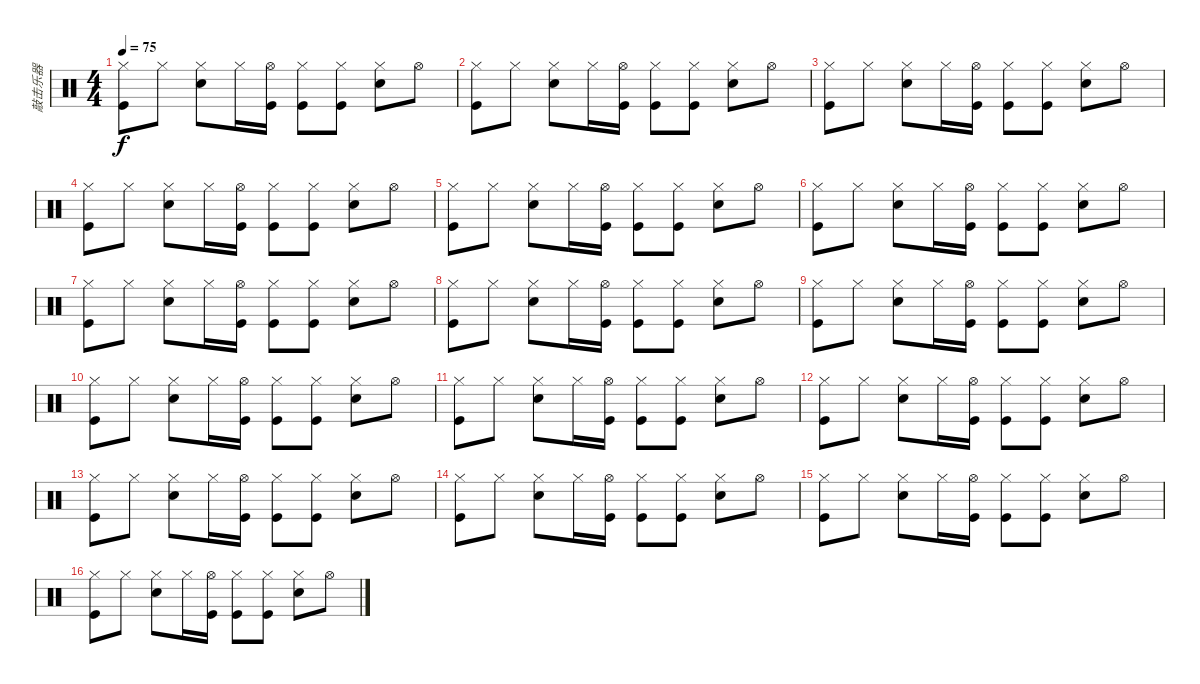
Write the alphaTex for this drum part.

\track ("敲击乐器" "敲击乐器") {instrument percussion}
\staff {score}
\articulation defaults
\ts (4 4)
\tempo 75
\clef neutral
\ks c
("Hi-Hat (closed)" "Kick (hit)").8{dy f} "Hi-Hat (closed)".8 ("Hi-Hat (closed)" "Snare (hit) 2").8 "Hi-Hat (closed)".16 ("Hi-Hat (open)" "Kick (hit)").16 ("Hi-Hat (closed)" "Kick (hit)").8 ("Hi-Hat (closed)" "Kick (hit)").8 ("Hi-Hat (closed)" "Snare (hit) 2").8 "Hi-Hat (open)".8 |
("Hi-Hat (closed)" "Kick (hit)").8 "Hi-Hat (closed)".8 ("Hi-Hat (closed)" "Snare (hit) 2").8 "Hi-Hat (closed)".16 ("Hi-Hat (open)" "Kick (hit)").16 ("Hi-Hat (closed)" "Kick (hit)").8 ("Hi-Hat (closed)" "Kick (hit)").8 ("Hi-Hat (closed)" "Snare (hit) 2").8 "Hi-Hat (open)".8 |
("Hi-Hat (closed)" "Kick (hit)").8 "Hi-Hat (closed)".8 ("Hi-Hat (closed)" "Snare (hit) 2").8 "Hi-Hat (closed)".16 ("Hi-Hat (open)" "Kick (hit)").16 ("Hi-Hat (closed)" "Kick (hit)").8 ("Hi-Hat (closed)" "Kick (hit)").8 ("Hi-Hat (closed)" "Snare (hit) 2").8 "Hi-Hat (open)".8 |
("Hi-Hat (closed)" "Kick (hit)").8 "Hi-Hat (closed)".8 ("Hi-Hat (closed)" "Snare (hit) 2").8 "Hi-Hat (closed)".16 ("Hi-Hat (open)" "Kick (hit)").16 ("Hi-Hat (closed)" "Kick (hit)").8 ("Hi-Hat (closed)" "Kick (hit)").8 ("Hi-Hat (closed)" "Snare (hit) 2").8 "Hi-Hat (open)".8 |
("Hi-Hat (closed)" "Kick (hit)").8 "Hi-Hat (closed)".8 ("Hi-Hat (closed)" "Snare (hit) 2").8 "Hi-Hat (closed)".16 ("Hi-Hat (open)" "Kick (hit)").16 ("Hi-Hat (closed)" "Kick (hit)").8 ("Hi-Hat (closed)" "Kick (hit)").8 ("Hi-Hat (closed)" "Snare (hit) 2").8 "Hi-Hat (open)".8 |
("Hi-Hat (closed)" "Kick (hit)").8 "Hi-Hat (closed)".8 ("Hi-Hat (closed)" "Snare (hit) 2").8 "Hi-Hat (closed)".16 ("Hi-Hat (open)" "Kick (hit)").16 ("Hi-Hat (closed)" "Kick (hit)").8 ("Hi-Hat (closed)" "Kick (hit)").8 ("Hi-Hat (closed)" "Snare (hit) 2").8 "Hi-Hat (open)".8 |
("Hi-Hat (closed)" "Kick (hit)").8 "Hi-Hat (closed)".8 ("Hi-Hat (closed)" "Snare (hit) 2").8 "Hi-Hat (closed)".16 ("Hi-Hat (open)" "Kick (hit)").16 ("Hi-Hat (closed)" "Kick (hit)").8 ("Hi-Hat (closed)" "Kick (hit)").8 ("Hi-Hat (closed)" "Snare (hit) 2").8 "Hi-Hat (open)".8 |
("Hi-Hat (closed)" "Kick (hit)").8 "Hi-Hat (closed)".8 ("Hi-Hat (closed)" "Snare (hit) 2").8 "Hi-Hat (closed)".16 ("Hi-Hat (open)" "Kick (hit)").16 ("Hi-Hat (closed)" "Kick (hit)").8 ("Hi-Hat (closed)" "Kick (hit)").8 ("Hi-Hat (closed)" "Snare (hit) 2").8 "Hi-Hat (open)".8 |
("Hi-Hat (closed)" "Kick (hit)").8 "Hi-Hat (closed)".8 ("Hi-Hat (closed)" "Snare (hit) 2").8 "Hi-Hat (closed)".16 ("Hi-Hat (open)" "Kick (hit)").16 ("Hi-Hat (closed)" "Kick (hit)").8 ("Hi-Hat (closed)" "Kick (hit)").8 ("Hi-Hat (closed)" "Snare (hit) 2").8 "Hi-Hat (open)".8 |
("Hi-Hat (closed)" "Kick (hit)").8 "Hi-Hat (closed)".8 ("Hi-Hat (closed)" "Snare (hit) 2").8 "Hi-Hat (closed)".16 ("Hi-Hat (open)" "Kick (hit)").16 ("Hi-Hat (closed)" "Kick (hit)").8 ("Hi-Hat (closed)" "Kick (hit)").8 ("Hi-Hat (closed)" "Snare (hit) 2").8 "Hi-Hat (open)".8 |
("Hi-Hat (closed)" "Kick (hit)").8 "Hi-Hat (closed)".8 ("Hi-Hat (closed)" "Snare (hit) 2").8 "Hi-Hat (closed)".16 ("Hi-Hat (open)" "Kick (hit)").16 ("Hi-Hat (closed)" "Kick (hit)").8 ("Hi-Hat (closed)" "Kick (hit)").8 ("Hi-Hat (closed)" "Snare (hit) 2").8 "Hi-Hat (open)".8 |
("Hi-Hat (closed)" "Kick (hit)").8 "Hi-Hat (closed)".8 ("Hi-Hat (closed)" "Snare (hit) 2").8 "Hi-Hat (closed)".16 ("Hi-Hat (open)" "Kick (hit)").16 ("Hi-Hat (closed)" "Kick (hit)").8 ("Hi-Hat (closed)" "Kick (hit)").8 ("Hi-Hat (closed)" "Snare (hit) 2").8 "Hi-Hat (open)".8 |
("Hi-Hat (closed)" "Kick (hit)").8 "Hi-Hat (closed)".8 ("Hi-Hat (closed)" "Snare (hit) 2").8 "Hi-Hat (closed)".16 ("Hi-Hat (open)" "Kick (hit)").16 ("Hi-Hat (closed)" "Kick (hit)").8 ("Hi-Hat (closed)" "Kick (hit)").8 ("Hi-Hat (closed)" "Snare (hit) 2").8 "Hi-Hat (open)".8 |
("Hi-Hat (closed)" "Kick (hit)").8 "Hi-Hat (closed)".8 ("Hi-Hat (closed)" "Snare (hit) 2").8 "Hi-Hat (closed)".16 ("Hi-Hat (open)" "Kick (hit)").16 ("Hi-Hat (closed)" "Kick (hit)").8 ("Hi-Hat (closed)" "Kick (hit)").8 ("Hi-Hat (closed)" "Snare (hit) 2").8 "Hi-Hat (open)".8 |
("Hi-Hat (closed)" "Kick (hit)").8 "Hi-Hat (closed)".8 ("Hi-Hat (closed)" "Snare (hit) 2").8 "Hi-Hat (closed)".16 ("Hi-Hat (open)" "Kick (hit)").16 ("Hi-Hat (closed)" "Kick (hit)").8 ("Hi-Hat (closed)" "Kick (hit)").8 ("Hi-Hat (closed)" "Snare (hit) 2").8 "Hi-Hat (open)".8 |
("Hi-Hat (closed)" "Kick (hit)").8 "Hi-Hat (closed)".8 ("Hi-Hat (closed)" "Snare (hit) 2").8 "Hi-Hat (closed)".16 ("Hi-Hat (open)" "Kick (hit)").16 ("Hi-Hat (closed)" "Kick (hit)").8 ("Hi-Hat (closed)" "Kick (hit)").8 ("Hi-Hat (closed)" "Snare (hit) 2").8 "Hi-Hat (open)".8
